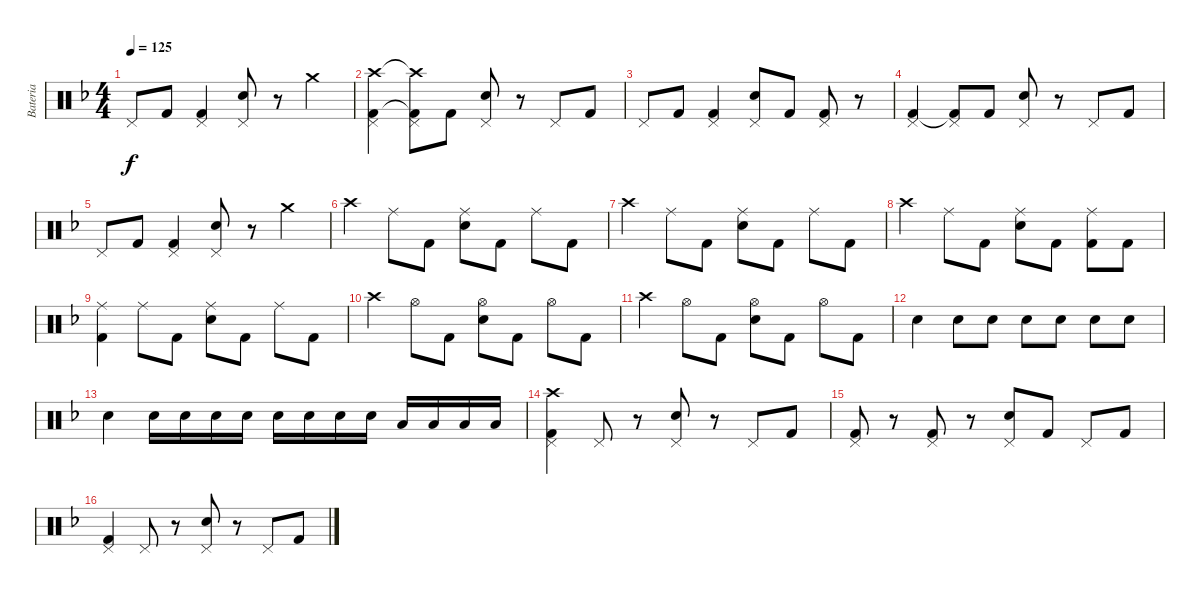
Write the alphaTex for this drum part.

\track ("Bateria" "Bateria") {instrument percussion}
\staff {score}
\articulation defaults
\ts (4 4)
\tempo 125
\clef neutral
\ks f "Pedal Hi-Hat (hit)".8{dy f} "Kick (hit) 2".8
("Pedal Hi-Hat (hit)" "Kick (hit) 2").4 ("Pedal Hi-Hat (hit)" "Electric Snare (hit)").8 r.8 "Crash medium (hit)".4 |
("Pedal Hi-Hat (hit)" "Crash high (hit)" "Kick (hit) 2").4 ("Pedal Hi-Hat (hit)" "Crash high (hit)"{t} "Kick (hit) 2"{t}).8 "Kick (hit) 2".8 ("Pedal Hi-Hat (hit)" "Electric Snare (hit)").8 r.8 "Pedal Hi-Hat (hit)".8 "Kick (hit) 2".8 |
"Pedal Hi-Hat (hit)".8 "Kick (hit) 2".8 ("Pedal Hi-Hat (hit)" "Kick (hit) 2").4 ("Pedal Hi-Hat (hit)" "Electric Snare (hit)").8 "Kick (hit) 2".8 ("Pedal Hi-Hat (hit)" "Kick (hit) 2").8 r.8 |
("Pedal Hi-Hat (hit)" "Kick (hit) 2").4 ("Pedal Hi-Hat (hit)" "Kick (hit) 2"{t}).8 "Kick (hit) 2".8 ("Pedal Hi-Hat (hit)" "Electric Snare (hit)").8 r.8 "Pedal Hi-Hat (hit)".8 "Kick (hit) 2".8 |
"Pedal Hi-Hat (hit)".8 "Kick (hit) 2".8 ("Pedal Hi-Hat (hit)" "Kick (hit) 2").4 ("Pedal Hi-Hat (hit)" "Electric Snare (hit)").8 r.8 "Crash medium (hit)".4 |
"Crash high (hit)".4 "Ride (middle)".8 "Kick (hit) 2".8 ("Ride (middle)" "Electric Snare (hit)").8 "Kick (hit) 2".8 "Ride (middle)".8 "Kick (hit) 2".8 |
"Crash high (hit)".4 "Ride (middle)".8 "Kick (hit) 2".8 ("Ride (middle)" "Electric Snare (hit)").8 "Kick (hit) 2".8 "Ride (middle)".8 "Kick (hit) 2".8 |
"Crash high (hit)".4 "Ride (middle)".8 "Kick (hit) 2".8 ("Ride (middle)" "Electric Snare (hit)").8 "Kick (hit) 2".8 ("Ride (middle)" "Kick (hit) 2").8 "Kick (hit) 2".8 |
("Ride (middle)" "Kick (hit) 2").4 "Ride (middle)".8 "Kick (hit) 2".8 ("Ride (middle)" "Electric Snare (hit)").8 "Kick (hit) 2".8 "Ride (middle)".8 "Kick (hit) 2".8 |
"Crash high (hit)".4 "Hi-Hat (open)".8 "Kick (hit) 2".8 ("Hi-Hat (open)" "Electric Snare (hit)").8 "Kick (hit) 2".8 "Hi-Hat (open)".8 "Kick (hit) 2".8 |
"Crash high (hit)".4 "Hi-Hat (open)".8 "Kick (hit) 2".8 ("Hi-Hat (open)" "Electric Snare (hit)").8 "Kick (hit) 2".8 "Hi-Hat (open)".8 "Kick (hit) 2".8 |
"Electric Snare (hit)".4 "Electric Snare (hit)".8 "Electric Snare (hit)".8 "Electric Snare (hit)".8 "Electric Snare (hit)".8 "Electric Snare (hit)".8 "Electric Snare (hit)".8 |
"Electric Snare (hit)".4 "Electric Snare (hit)".16 "Electric Snare (hit)".16 "Electric Snare (hit)".16 "Electric Snare (hit)".16 "Snare (hit) 2".16 "Snare (hit) 2".16 "Snare (hit) 2".16 "Snare (hit) 2".16 "Low Tom (hit)".16 "Low Tom (hit)".16 "Low Tom (hit)".16 "Low Tom (hit)".16 |
("Pedal Hi-Hat (hit)" "Crash high (hit)" "Kick (hit) 2").4 "Pedal Hi-Hat (hit)".8 r.8 ("Pedal Hi-Hat (hit)" "Electric Snare (hit)").8 r.8 "Pedal Hi-Hat (hit)".8 "Kick (hit) 2".8 |
("Pedal Hi-Hat (hit)" "Kick (hit) 2").8 r.8 ("Pedal Hi-Hat (hit)" "Kick (hit) 2").8 r.8 ("Pedal Hi-Hat (hit)" "Electric Snare (hit)").8 "Kick (hit) 2".8 "Pedal Hi-Hat (hit)".8 "Kick (hit) 2".8 |
("Pedal Hi-Hat (hit)" "Kick (hit) 2").4 "Pedal Hi-Hat (hit)".8 r.8 ("Pedal Hi-Hat (hit)" "Electric Snare (hit)").8 r.8 "Pedal Hi-Hat (hit)".8 "Kick (hit) 2".8
